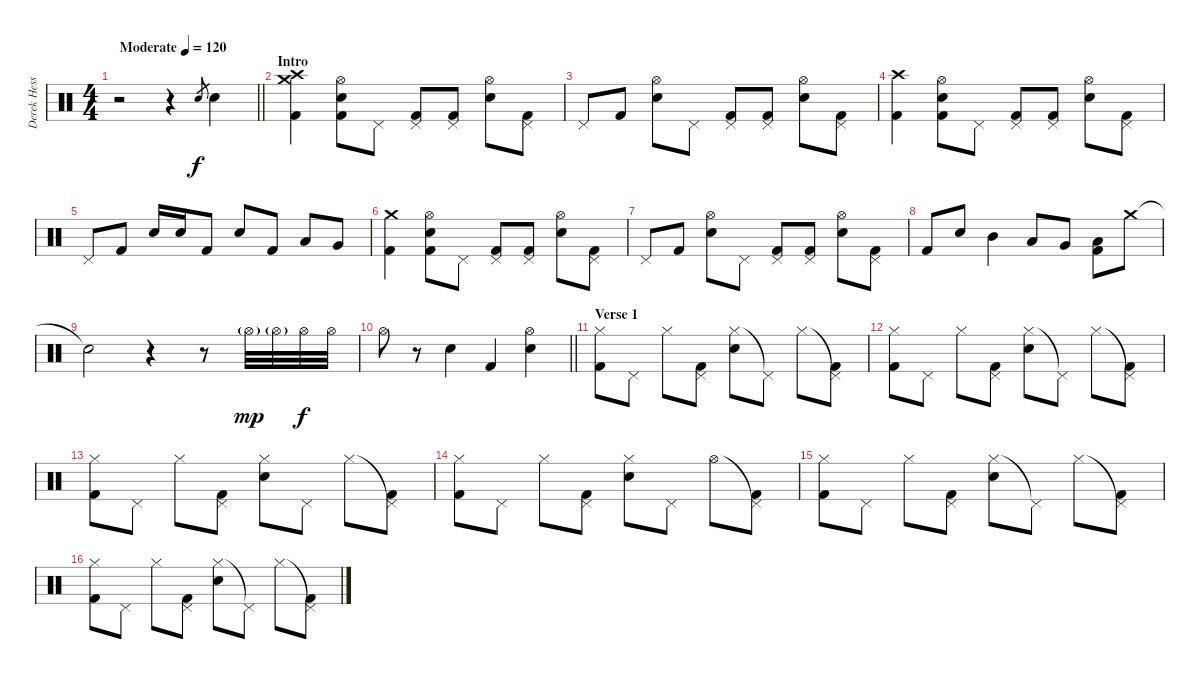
\track ("Derek Hess (Drums and Percussion)" "Derek Hess") {instrument percussion}
\staff {score}
\articulation defaults
\ts (4 4)
\tempo (120 "Moderate")
\clef neutral
\barLineRight lightlight
\ks c
r.2{dy f} r.4 "Snare (hit) 2".8{gr} "Snare (hit) 2".4 |
\section ("" "Intro")
("Crash high (hit)" "Crash medium (hit)" "Kick (hit) 2").4 ("Snare (hit) 2" "Hi-Hat (open)" "Kick (hit) 2").8 "Pedal Hi-Hat (hit)".8 ("Pedal Hi-Hat (hit)" "Kick (hit) 2").8 ("Pedal Hi-Hat (hit)" "Kick (hit) 2").8 ("Snare (hit) 2" "Hi-Hat (open)").8 ("Pedal Hi-Hat (hit)" "Kick (hit) 2").8 |
"Pedal Hi-Hat (hit)".8 "Kick (hit) 2".8 ("Snare (hit) 2" "Hi-Hat (open)").8 "Pedal Hi-Hat (hit)".8 ("Pedal Hi-Hat (hit)" "Kick (hit) 2").8 ("Pedal Hi-Hat (hit)" "Kick (hit) 2").8 ("Snare (hit) 2" "Hi-Hat (open)").8 ("Pedal Hi-Hat (hit)" "Kick (hit) 2").8 |
("Crash high (hit)" "Kick (hit) 2").4 ("Snare (hit) 2" "Hi-Hat (open)" "Kick (hit) 2").8 "Pedal Hi-Hat (hit)".8 ("Pedal Hi-Hat (hit)" "Kick (hit) 2").8 ("Pedal Hi-Hat (hit)" "Kick (hit) 2").8 ("Snare (hit) 2" "Hi-Hat (open)").8 ("Pedal Hi-Hat (hit)" "Kick (hit) 2").8 |
"Pedal Hi-Hat (hit)".8 "Kick (hit) 2".8 "Snare (hit) 2".16 "Snare (hit) 2".16 "Kick (hit) 2".8 "Snare (hit) 2".8 "Kick (hit) 2".8 "Low Tom (hit)".8 "Very Low Tom (hit)".8 |
("Crash medium (hit)" "Kick (hit) 2").4 ("Snare (hit) 2" "Hi-Hat (open)" "Kick (hit) 2").8 "Pedal Hi-Hat (hit)".8 ("Pedal Hi-Hat (hit)" "Kick (hit) 2").8 ("Pedal Hi-Hat (hit)" "Kick (hit) 2").8 ("Snare (hit) 2" "Hi-Hat (open)").8 ("Pedal Hi-Hat (hit)" "Kick (hit) 2").8 |
"Pedal Hi-Hat (hit)".8 "Kick (hit) 2".8 ("Snare (hit) 2" "Hi-Hat (open)").8 "Pedal Hi-Hat (hit)".8 ("Pedal Hi-Hat (hit)" "Kick (hit) 2").8 ("Pedal Hi-Hat (hit)" "Kick (hit) 2").8 ("Snare (hit) 2" "Hi-Hat (open)").8 ("Pedal Hi-Hat (hit)" "Kick (hit) 2").8 |
"Kick (hit) 2".8 "Snare (hit) 2".8 "Mid Tom (hit)".4 "Low Tom (hit)".8 "Very Low Tom (hit)".8 ("Low Floor Tom (hit)" "Kick (hit) 2").8 "Crash medium (hit)".8 |
"Snare (hit)"{t}.2 r.4 r.8 "Hi-Hat (open)"{g}.32{dy mp} "Hi-Hat (open)"{g}.32 "Hi-Hat (open)".32{dy f} "Hi-Hat (open)".32 |
\barLineRight lightlight "Hi-Hat (open)".8
r.8 "Snare (hit) 2".4 "Kick (hit) 2".4 ("Hi-Hat (open)" "Snare (hit) 2").4 |
\section ("" "Verse 1")
("Hi-Hat (closed)" "Kick (hit) 2").8 "Pedal Hi-Hat (hit)".8 "Hi-Hat (closed)".8 ("Pedal Hi-Hat (hit)" "Kick (hit) 2").8 ("Hi-Hat (closed)" "Snare (hit) 2").8 "Pedal Hi-Hat (hit)"{t}.8 "Hi-Hat (closed)".8 ("Pedal Hi-Hat (hit)"{t} "Kick (hit) 2").8 |
("Hi-Hat (closed)" "Kick (hit) 2").8 "Pedal Hi-Hat (hit)".8 "Hi-Hat (closed)".8 ("Pedal Hi-Hat (hit)" "Kick (hit) 2").8 ("Hi-Hat (closed)" "Snare (hit) 2").8 "Pedal Hi-Hat (hit)"{t}.8 "Hi-Hat (closed)".8 ("Pedal Hi-Hat (hit)"{t} "Kick (hit) 2").8 |
("Hi-Hat (closed)" "Kick (hit) 2").8 "Pedal Hi-Hat (hit)".8 "Hi-Hat (closed)".8 ("Pedal Hi-Hat (hit)" "Kick (hit) 2").8 ("Hi-Hat (closed)" "Snare (hit) 2").8 "Pedal Hi-Hat (hit)".8 "Hi-Hat (closed)".8 ("Pedal Hi-Hat (hit)"{t} "Kick (hit) 2").8 |
("Hi-Hat (closed)" "Kick (hit) 2").8 "Pedal Hi-Hat (hit)".8 "Hi-Hat (closed)".8 ("Pedal Hi-Hat (hit)" "Kick (hit) 2").8 ("Hi-Hat (closed)" "Snare (hit) 2").8 "Pedal Hi-Hat (hit)".8 "Hi-Hat (open)".8 ("Pedal Hi-Hat (hit)"{t} "Kick (hit) 2").8 |
("Hi-Hat (closed)" "Kick (hit) 2").8 "Pedal Hi-Hat (hit)".8 "Hi-Hat (closed)".8 ("Pedal Hi-Hat (hit)" "Kick (hit) 2").8 ("Hi-Hat (closed)" "Snare (hit) 2").8 "Pedal Hi-Hat (hit)"{t}.8 "Hi-Hat (closed)".8 ("Pedal Hi-Hat (hit)"{t} "Kick (hit) 2").8 |
("Hi-Hat (closed)" "Kick (hit) 2").8 "Pedal Hi-Hat (hit)".8 "Hi-Hat (closed)".8 ("Pedal Hi-Hat (hit)" "Kick (hit) 2").8 ("Hi-Hat (closed)" "Snare (hit) 2").8 "Pedal Hi-Hat (hit)"{t}.8 "Hi-Hat (closed)".8 ("Pedal Hi-Hat (hit)"{t} "Kick (hit) 2").8
